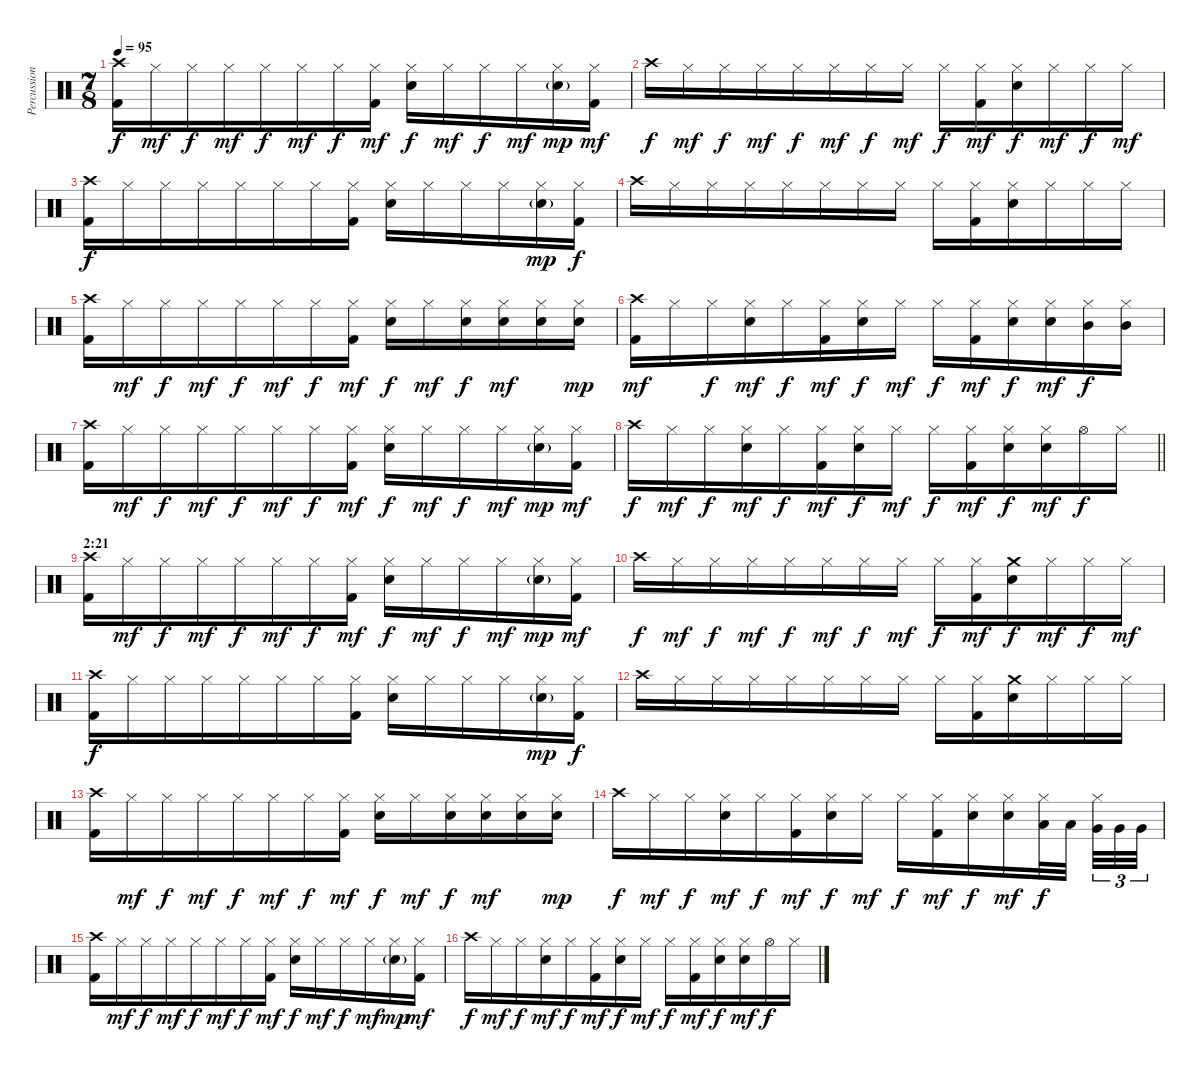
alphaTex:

\track ("Percussion" "Percussion") {instrument percussion}
\staff {score}
\articulation defaults
\ts (7 8)
\tempo 95
\clef neutral
\ks c
("Crash high (hit)" "Kick (hit) 2").16{dy f} "Hi-Hat (closed)".16{dy mf} "Hi-Hat (closed)".16{dy f} "Hi-Hat (closed)".16{dy mf} "Hi-Hat (closed)".16{dy f} "Hi-Hat (closed)".16{dy mf} "Hi-Hat (closed)".16{dy f} ("Hi-Hat (closed)" "Kick (hit) 2").16{dy mf} ("Hi-Hat (closed)" "Electric Snare (hit)").16{dy f} "Hi-Hat (closed)".16{dy mf} "Hi-Hat (closed)".16{dy f} "Hi-Hat (closed)".16{dy mf} ("Hi-Hat (closed)" "Electric Snare (hit)"{g}).16{dy mp} ("Hi-Hat (closed)" "Kick (hit) 2").16{dy mf} |
"Crash high (hit)".16{dy f} "Hi-Hat (closed)".16{dy mf} "Hi-Hat (closed)".16{dy f} "Hi-Hat (closed)".16{dy mf} "Hi-Hat (closed)".16{dy f} "Hi-Hat (closed)".16{dy mf} "Hi-Hat (closed)".16{dy f} "Hi-Hat (closed)".16{dy mf} "Hi-Hat (closed)".16{dy f} ("Hi-Hat (closed)" "Kick (hit) 2").16{dy mf} ("Hi-Hat (closed)" "Electric Snare (hit)").16{dy f} "Hi-Hat (closed)".16{dy mf} "Hi-Hat (closed)".16{dy f} "Hi-Hat (closed)".16{dy mf} |
("Crash high (hit)" "Kick (hit) 2").16{dy f} "Hi-Hat (closed)".16 "Hi-Hat (closed)".16 "Hi-Hat (closed)".16 "Hi-Hat (closed)".16 "Hi-Hat (closed)".16 "Hi-Hat (closed)".16 ("Hi-Hat (closed)" "Kick (hit) 2").16 ("Hi-Hat (closed)" "Electric Snare (hit)").16 "Hi-Hat (closed)".16 "Hi-Hat (closed)".16 "Hi-Hat (closed)".16 ("Hi-Hat (closed)" "Electric Snare (hit)"{g}).16{dy mp} ("Hi-Hat (closed)" "Kick (hit) 2").16{dy f} |
"Crash high (hit)".16 "Hi-Hat (closed)".16 "Hi-Hat (closed)".16 "Hi-Hat (closed)".16 "Hi-Hat (closed)".16 "Hi-Hat (closed)".16 "Hi-Hat (closed)".16 "Hi-Hat (closed)".16 "Hi-Hat (closed)".16 ("Hi-Hat (closed)" "Kick (hit) 2").16 ("Hi-Hat (closed)" "Electric Snare (hit)").16 "Hi-Hat (closed)".16 "Hi-Hat (closed)".16 "Hi-Hat (closed)".16 |
("Crash high (hit)" "Kick (hit) 2").16 "Hi-Hat (closed)".16{dy mf} "Hi-Hat (closed)".16{dy f} "Hi-Hat (closed)".16{dy mf} "Hi-Hat (closed)".16{dy f} "Hi-Hat (closed)".16{dy mf} "Hi-Hat (closed)".16{dy f} ("Hi-Hat (closed)" "Kick (hit) 2").16{dy mf} ("Hi-Hat (closed)" "Electric Snare (hit)").16{dy f} "Hi-Hat (closed)".16{dy mf} ("Hi-Hat (closed)" "Electric Snare (hit)").16{dy f} ("Hi-Hat (closed)" "Electric Snare (hit)").16{dy mf} ("Hi-Hat (closed)" "Electric Snare (hit)").16 ("Hi-Hat (closed)" "Electric Snare (hit)").16{dy mp} |
("Crash high (hit)" "Kick (hit) 2").16{dy mf} "Hi-Hat (closed)".16 "Hi-Hat (closed)".16{dy f} ("Hi-Hat (closed)" "Electric Snare (hit)").16{dy mf} "Hi-Hat (closed)".16{dy f} ("Hi-Hat (closed)" "Kick (hit) 2").16{dy mf} ("Hi-Hat (closed)" "Electric Snare (hit)").16{dy f} "Hi-Hat (closed)".16{dy mf} "Hi-Hat (closed)".16{dy f} ("Hi-Hat (closed)" "Kick (hit) 2").16{dy mf} ("Hi-Hat (closed)" "Electric Snare (hit)").16{dy f} ("Hi-Hat (closed)" "Electric Snare (hit)").16{dy mf} ("Hi-Hat (closed)" "Mid Tom (hit)").16{dy f} ("Hi-Hat (closed)" "Mid Tom (hit)").16 |
("Crash high (hit)" "Kick (hit) 2").16 "Hi-Hat (closed)".16{dy mf} "Hi-Hat (closed)".16{dy f} "Hi-Hat (closed)".16{dy mf} "Hi-Hat (closed)".16{dy f} "Hi-Hat (closed)".16{dy mf} "Hi-Hat (closed)".16{dy f} ("Hi-Hat (closed)" "Kick (hit) 2").16{dy mf} ("Hi-Hat (closed)" "Electric Snare (hit)").16{dy f} "Hi-Hat (closed)".16{dy mf} "Hi-Hat (closed)".16{dy f} "Hi-Hat (closed)".16{dy mf} ("Hi-Hat (closed)" "Electric Snare (hit)"{g}).16{dy mp} ("Hi-Hat (closed)" "Kick (hit) 2").16{dy mf} |
\barLineRight lightlight "Crash high (hit)".16{dy f} "Hi-Hat (closed)".16{dy mf} "Hi-Hat (closed)".16{dy f}
("Hi-Hat (closed)" "Electric Snare (hit)").16{dy mf} "Hi-Hat (closed)".16{dy f} ("Hi-Hat (closed)" "Kick (hit) 2").16{dy mf} ("Hi-Hat (closed)" "Electric Snare (hit)").16{dy f} "Hi-Hat (closed)".16{dy mf} "Hi-Hat (closed)".16{dy f} ("Hi-Hat (closed)" "Kick (hit) 2").16{dy mf} ("Hi-Hat (closed)" "Electric Snare (hit)").16{dy f} ("Hi-Hat (closed)" "Electric Snare (hit)").16{dy mf} "Hi-Hat (open)".16{dy f} "Hi-Hat (closed)".16 |
\section ("" "2:21")
("Crash high (hit)" "Kick (hit) 2").16{balance 8} "Hi-Hat (closed)".16{dy mf} "Hi-Hat (closed)".16{dy f} "Hi-Hat (closed)".16{dy mf} "Hi-Hat (closed)".16{dy f} "Hi-Hat (closed)".16{dy mf} "Hi-Hat (closed)".16{dy f} ("Hi-Hat (closed)" "Kick (hit) 2").16{dy mf} ("Hi-Hat (closed)" "Electric Snare (hit)").16{dy f} "Hi-Hat (closed)".16{dy mf} "Hi-Hat (closed)".16{dy f} "Hi-Hat (closed)".16{dy mf} ("Hi-Hat (closed)" "Electric Snare (hit)"{g}).16{dy mp} ("Hi-Hat (closed)" "Kick (hit) 2").16{dy mf} |
"Crash high (hit)".16{dy f} "Hi-Hat (closed)".16{dy mf} "Hi-Hat (closed)".16{dy f} "Hi-Hat (closed)".16{dy mf} "Hi-Hat (closed)".16{dy f} "Hi-Hat (closed)".16{dy mf} "Hi-Hat (closed)".16{dy f} "Hi-Hat (closed)".16{dy mf} "Hi-Hat (closed)".16{dy f} ("Hi-Hat (closed)" "Kick (hit) 2").16{dy mf} ("Crash medium (hit)" "Electric Snare (hit)").16{dy f} "Hi-Hat (closed)".16{dy mf} "Hi-Hat (closed)".16{dy f} "Hi-Hat (closed)".16{dy mf} |
("Crash high (hit)" "Kick (hit) 2").16{dy f} "Hi-Hat (closed)".16 "Hi-Hat (closed)".16 "Hi-Hat (closed)".16 "Hi-Hat (closed)".16 "Hi-Hat (closed)".16 "Hi-Hat (closed)".16 ("Hi-Hat (closed)" "Kick (hit) 2").16 ("Hi-Hat (closed)" "Electric Snare (hit)").16 "Hi-Hat (closed)".16 "Hi-Hat (closed)".16 "Hi-Hat (closed)".16 ("Hi-Hat (closed)" "Electric Snare (hit)"{g}).16{dy mp} ("Hi-Hat (closed)" "Kick (hit) 2").16{dy f} |
"Crash high (hit)".16 "Hi-Hat (closed)".16 "Hi-Hat (closed)".16 "Hi-Hat (closed)".16 "Hi-Hat (closed)".16 "Hi-Hat (closed)".16 "Hi-Hat (closed)".16 "Hi-Hat (closed)".16 "Hi-Hat (closed)".16 ("Hi-Hat (closed)" "Kick (hit) 2").16 ("Crash medium (hit)" "Electric Snare (hit)").16 "Hi-Hat (closed)".16 "Hi-Hat (closed)".16 "Hi-Hat (closed)".16 |
("Crash high (hit)" "Kick (hit) 2").16 "Hi-Hat (closed)".16{dy mf} "Hi-Hat (closed)".16{dy f} "Hi-Hat (closed)".16{dy mf} "Hi-Hat (closed)".16{dy f} "Hi-Hat (closed)".16{dy mf} "Hi-Hat (closed)".16{dy f} ("Hi-Hat (closed)" "Kick (hit) 2").16{dy mf} ("Hi-Hat (closed)" "Electric Snare (hit)").16{dy f} "Hi-Hat (closed)".16{dy mf} ("Hi-Hat (closed)" "Electric Snare (hit)").16{dy f} ("Hi-Hat (closed)" "Electric Snare (hit)").16{dy mf} ("Hi-Hat (closed)" "Electric Snare (hit)").16 ("Hi-Hat (closed)" "Electric Snare (hit)").16{dy mp} |
"Crash high (hit)".16{dy f} "Hi-Hat (closed)".16{dy mf} "Hi-Hat (closed)".16{dy f} ("Hi-Hat (closed)" "Electric Snare (hit)").16{dy mf} "Hi-Hat (closed)".16{dy f} ("Hi-Hat (closed)" "Kick (hit) 2").16{dy mf} ("Hi-Hat (closed)" "Electric Snare (hit)").16{dy f} "Hi-Hat (closed)".16{dy mf} "Hi-Hat (closed)".16{dy f} ("Hi-Hat (closed)" "Kick (hit) 2").16{dy mf} ("Hi-Hat (closed)" "Electric Snare (hit)").16{dy f} ("Hi-Hat (closed)" "Electric Snare (hit)").16{dy mf} ("Hi-Hat (closed)" "Low Tom (hit)").32{dy f} "Low Tom (hit)".32{beam splitsecondary} ("Hi-Hat (closed)" "Very Low Tom (hit)").32{tu (3 2)} "Very Low Tom (hit)".32{tu (3 2)} "Very Low Tom (hit)".32{tu (3 2)} |
("Crash high (hit)" "Kick (hit) 2").16 "Hi-Hat (closed)".16{dy mf} "Hi-Hat (closed)".16{dy f} "Hi-Hat (closed)".16{dy mf} "Hi-Hat (closed)".16{dy f} "Hi-Hat (closed)".16{dy mf} "Hi-Hat (closed)".16{dy f} ("Hi-Hat (closed)" "Kick (hit) 2").16{dy mf} ("Hi-Hat (closed)" "Electric Snare (hit)").16{dy f} "Hi-Hat (closed)".16{dy mf} "Hi-Hat (closed)".16{dy f} "Hi-Hat (closed)".16{dy mf} ("Hi-Hat (closed)" "Electric Snare (hit)"{g}).16{dy mp} ("Hi-Hat (closed)" "Kick (hit) 2").16{dy mf} |
"Crash high (hit)".16{dy f} "Hi-Hat (closed)".16{dy mf} "Hi-Hat (closed)".16{dy f} ("Hi-Hat (closed)" "Electric Snare (hit)").16{dy mf} "Hi-Hat (closed)".16{dy f} ("Hi-Hat (closed)" "Kick (hit) 2").16{dy mf} ("Hi-Hat (closed)" "Electric Snare (hit)").16{dy f} "Hi-Hat (closed)".16{dy mf} "Hi-Hat (closed)".16{dy f} ("Hi-Hat (closed)" "Kick (hit) 2").16{dy mf} ("Hi-Hat (closed)" "Electric Snare (hit)").16{dy f} ("Hi-Hat (closed)" "Electric Snare (hit)").16{dy mf} "Hi-Hat (open)".16{dy f} "Hi-Hat (closed)".16
